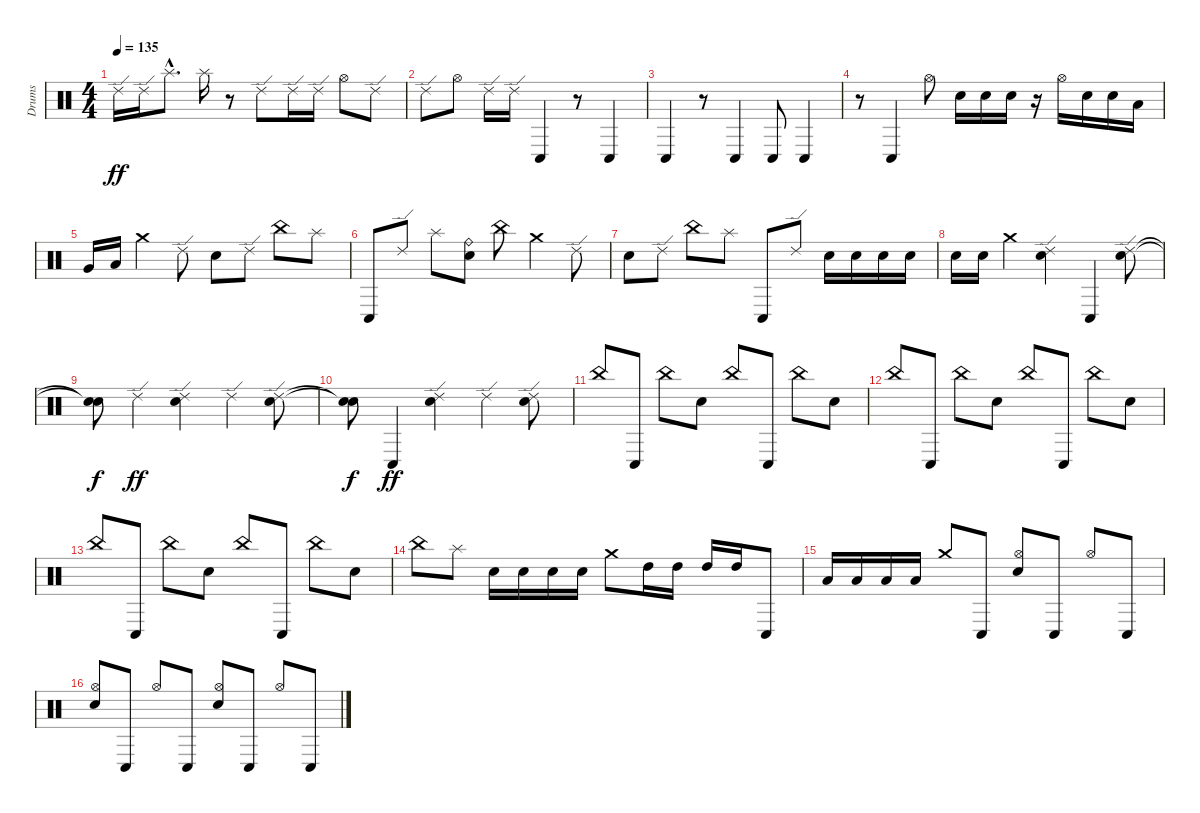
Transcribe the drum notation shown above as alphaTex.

\track ("Drums" "Drums") {instrument percussion}
\staff {score}
\articulation defaults
\ts (4 4)
\tempo 135
\clef neutral
\ks c "Ride (edge) 2".16{dy ff} "Ride (edge) 2".16 "Splash (hit)"{hac}.8{d} "Splash (hit)".16
r.8 "Ride (edge) 2".8 "Ride (edge) 2".16 "Ride (edge) 2".16 "Hi-Hat (open)".8 "Ride (edge) 2".8 |
"Ride (edge) 2".8 "Hi-Hat (open)".8 "Ride (edge) 2".16 "Ride (edge) 2".16 "Conga low (hit)".4 r.8 "Conga low (hit)".4 |
"Conga low (hit)".4 r.8 "Conga low (hit)".4 "Conga low (hit)".8 "Conga low (hit)".4 |
r.8 "Conga low (hit)".4 "Hi-Hat (open)".8 "Electric Snare (hit)".16 "Electric Snare (hit)".16 "Electric Snare (hit)".16 r.16 "Hi-Hat (open)".16 "Electric Snare (hit)".16 "Electric Snare (hit)".16 "Low Tom (hit)".16 |
"Very Low Tom (hit)".16 "Low Floor Tom (hit)".16 "Crash medium (hit)".4 "Ride (edge) 2".8 "Electric Snare (hit)".8 "Ride (edge) 2".8 "China (hit)".8 "Splash (hit)".8 |
"Conga low (hit)".8 "Ride (edge) 2".8 "Splash (hit)".8 ("Electric Snare (hit)" "Ride (bell)").8 "China (hit)".8 "Crash medium (hit)".4 "Ride (edge) 2".8 |
"Electric Snare (hit)".8 "Ride (edge) 2".8 "China (hit)".8 "Splash (hit)".8 "Conga low (hit)".8 "Ride (edge) 2".8 "Electric Snare (hit)".16 "Electric Snare (hit)".16 "Electric Snare (hit)".16 "Electric Snare (hit)".16 |
"Electric Snare (hit)".16 "Electric Snare (hit)".16 "Crash medium (hit)".4 ("Electric Snare (hit)" "Ride (edge) 2").4 "Conga low (hit)".4 ("Electric Snare (hit)" "Ride (edge) 2").8 |
("Snare (hit)"{t} "Snare (hit)"{t}).8{dy f} "Ride (edge) 2".4{dy ff} ("Electric Snare (hit)" "Ride (edge) 2").4 "Ride (edge) 2".4 ("Electric Snare (hit)" "Ride (edge) 2").8 |
("Snare (hit)"{t} "Snare (hit)"{t}).8{dy f} "Conga low (hit)".4{dy ff} ("Electric Snare (hit)" "Ride (edge) 2").4 "Ride (edge) 2".4 ("Electric Snare (hit)" "Ride (edge) 2").8 |
"China (hit)".8 "Conga low (hit)".8 "China (hit)".8 "Electric Snare (hit)".8 "China (hit)".8 "Conga low (hit)".8 "China (hit)".8 "Electric Snare (hit)".8 |
"China (hit)".8 "Conga low (hit)".8 "China (hit)".8 "Electric Snare (hit)".8 "China (hit)".8 "Conga low (hit)".8 "China (hit)".8 "Electric Snare (hit)".8 |
"China (hit)".8 "Conga low (hit)".8 "China (hit)".8 "Electric Snare (hit)".8 "China (hit)".8 "Conga low (hit)".8 "China (hit)".8 "Electric Snare (hit)".8 |
"China (hit)".8 "Splash (hit)".8 "Electric Snare (hit)".16 "Electric Snare (hit)".16 "Electric Snare (hit)".16 "Electric Snare (hit)".16 "Crash medium (hit)".8 "High Tom (hit)".16 "High Tom (hit)".16 "High Tom (hit)".16 "High Tom (hit)".16 "Conga low (hit)".8 |
"Low Tom (hit)".16 "Low Tom (hit)".16 "Low Tom (hit)".16 "Low Tom (hit)".16 "Crash medium (hit)".8 "Conga low (hit)".8 ("Electric Snare (hit)" "Hi-Hat (open)").8 "Conga low (hit)".8 "Hi-Hat (open)".8 "Conga low (hit)".8 |
("Electric Snare (hit)" "Hi-Hat (open)").8 "Conga low (hit)".8 "Hi-Hat (open)".8 "Conga low (hit)".8 ("Electric Snare (hit)" "Hi-Hat (open)").8 "Conga low (hit)".8 "Hi-Hat (open)".8 "Conga low (hit)".8
